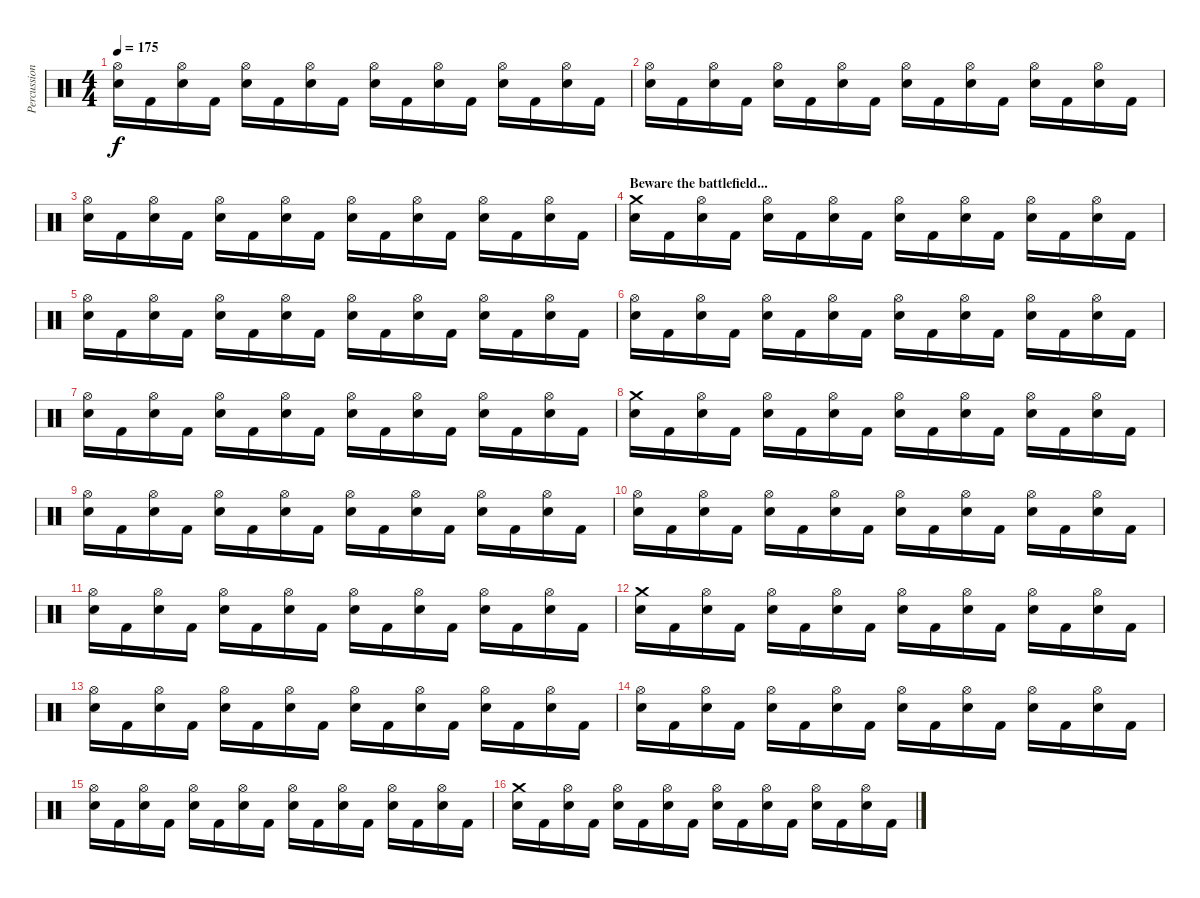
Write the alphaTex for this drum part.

\track ("Percussion" "Percussion") {instrument percussion}
\staff {score}
\articulation defaults
\ts (4 4)
\tempo 175
\clef neutral
\ks c
("Hi-Hat (open)" "Snare (hit) 2").16{dy f} "Kick (hit) 2".16 ("Hi-Hat (open)" "Snare (hit) 2").16 "Kick (hit) 2".16 ("Hi-Hat (open)" "Snare (hit) 2").16 "Kick (hit) 2".16 ("Hi-Hat (open)" "Snare (hit) 2").16 "Kick (hit) 2".16 ("Hi-Hat (open)" "Snare (hit) 2").16 "Kick (hit) 2".16 ("Hi-Hat (open)" "Snare (hit) 2").16 "Kick (hit) 2".16 ("Hi-Hat (open)" "Snare (hit) 2").16 "Kick (hit) 2".16 ("Hi-Hat (open)" "Snare (hit) 2").16 "Kick (hit) 2".16 |
("Hi-Hat (open)" "Snare (hit) 2").16 "Kick (hit) 2".16 ("Hi-Hat (open)" "Snare (hit) 2").16 "Kick (hit) 2".16 ("Hi-Hat (open)" "Snare (hit) 2").16 "Kick (hit) 2".16 ("Hi-Hat (open)" "Snare (hit) 2").16 "Kick (hit) 2".16 ("Hi-Hat (open)" "Snare (hit) 2").16 "Kick (hit) 2".16 ("Hi-Hat (open)" "Snare (hit) 2").16 "Kick (hit) 2".16 ("Hi-Hat (open)" "Snare (hit) 2").16 "Kick (hit) 2".16 ("Hi-Hat (open)" "Snare (hit) 2").16 "Kick (hit) 2".16 |
("Hi-Hat (open)" "Snare (hit) 2").16 "Kick (hit) 2".16 ("Hi-Hat (open)" "Snare (hit) 2").16 "Kick (hit) 2".16 ("Hi-Hat (open)" "Snare (hit) 2").16 "Kick (hit) 2".16 ("Hi-Hat (open)" "Snare (hit) 2").16 "Kick (hit) 2".16 ("Hi-Hat (open)" "Snare (hit) 2").16 "Kick (hit) 2".16 ("Hi-Hat (open)" "Snare (hit) 2").16 "Kick (hit) 2".16 ("Hi-Hat (open)" "Snare (hit) 2").16 "Kick (hit) 2".16 ("Hi-Hat (open)" "Snare (hit) 2").16 "Kick (hit) 2".16 |
\section ("" "Beware the battlefield...")
("Crash medium (hit)" "Snare (hit) 2").16 "Kick (hit) 2".16 ("Hi-Hat (open)" "Snare (hit) 2").16 "Kick (hit) 2".16 ("Hi-Hat (open)" "Snare (hit) 2").16 "Kick (hit) 2".16 ("Hi-Hat (open)" "Snare (hit) 2").16 "Kick (hit) 2".16 ("Hi-Hat (open)" "Snare (hit) 2").16 "Kick (hit) 2".16 ("Hi-Hat (open)" "Snare (hit) 2").16 "Kick (hit) 2".16 ("Hi-Hat (open)" "Snare (hit) 2").16 "Kick (hit) 2".16 ("Hi-Hat (open)" "Snare (hit) 2").16 "Kick (hit) 2".16 |
("Hi-Hat (open)" "Snare (hit) 2").16 "Kick (hit) 2".16 ("Hi-Hat (open)" "Snare (hit) 2").16 "Kick (hit) 2".16 ("Hi-Hat (open)" "Snare (hit) 2").16 "Kick (hit) 2".16 ("Hi-Hat (open)" "Snare (hit) 2").16 "Kick (hit) 2".16 ("Hi-Hat (open)" "Snare (hit) 2").16 "Kick (hit) 2".16 ("Hi-Hat (open)" "Snare (hit) 2").16 "Kick (hit) 2".16 ("Hi-Hat (open)" "Snare (hit) 2").16 "Kick (hit) 2".16 ("Hi-Hat (open)" "Snare (hit) 2").16 "Kick (hit) 2".16 |
("Hi-Hat (open)" "Snare (hit) 2").16 "Kick (hit) 2".16 ("Hi-Hat (open)" "Snare (hit) 2").16 "Kick (hit) 2".16 ("Hi-Hat (open)" "Snare (hit) 2").16 "Kick (hit) 2".16 ("Hi-Hat (open)" "Snare (hit) 2").16 "Kick (hit) 2".16 ("Hi-Hat (open)" "Snare (hit) 2").16 "Kick (hit) 2".16 ("Hi-Hat (open)" "Snare (hit) 2").16 "Kick (hit) 2".16 ("Hi-Hat (open)" "Snare (hit) 2").16 "Kick (hit) 2".16 ("Hi-Hat (open)" "Snare (hit) 2").16 "Kick (hit) 2".16 |
("Hi-Hat (open)" "Snare (hit) 2").16 "Kick (hit) 2".16 ("Hi-Hat (open)" "Snare (hit) 2").16 "Kick (hit) 2".16 ("Hi-Hat (open)" "Snare (hit) 2").16 "Kick (hit) 2".16 ("Hi-Hat (open)" "Snare (hit) 2").16 "Kick (hit) 2".16 ("Hi-Hat (open)" "Snare (hit) 2").16 "Kick (hit) 2".16 ("Hi-Hat (open)" "Snare (hit) 2").16 "Kick (hit) 2".16 ("Hi-Hat (open)" "Snare (hit) 2").16 "Kick (hit) 2".16 ("Hi-Hat (open)" "Snare (hit) 2").16 "Kick (hit) 2".16 |
("Crash medium (hit)" "Snare (hit) 2").16 "Kick (hit) 2".16 ("Hi-Hat (open)" "Snare (hit) 2").16 "Kick (hit) 2".16 ("Hi-Hat (open)" "Snare (hit) 2").16 "Kick (hit) 2".16 ("Hi-Hat (open)" "Snare (hit) 2").16 "Kick (hit) 2".16 ("Hi-Hat (open)" "Snare (hit) 2").16 "Kick (hit) 2".16 ("Hi-Hat (open)" "Snare (hit) 2").16 "Kick (hit) 2".16 ("Hi-Hat (open)" "Snare (hit) 2").16 "Kick (hit) 2".16 ("Hi-Hat (open)" "Snare (hit) 2").16 "Kick (hit) 2".16 |
("Hi-Hat (open)" "Snare (hit) 2").16 "Kick (hit) 2".16 ("Hi-Hat (open)" "Snare (hit) 2").16 "Kick (hit) 2".16 ("Hi-Hat (open)" "Snare (hit) 2").16 "Kick (hit) 2".16 ("Hi-Hat (open)" "Snare (hit) 2").16 "Kick (hit) 2".16 ("Hi-Hat (open)" "Snare (hit) 2").16 "Kick (hit) 2".16 ("Hi-Hat (open)" "Snare (hit) 2").16 "Kick (hit) 2".16 ("Hi-Hat (open)" "Snare (hit) 2").16 "Kick (hit) 2".16 ("Hi-Hat (open)" "Snare (hit) 2").16 "Kick (hit) 2".16 |
("Hi-Hat (open)" "Snare (hit) 2").16 "Kick (hit) 2".16 ("Hi-Hat (open)" "Snare (hit) 2").16 "Kick (hit) 2".16 ("Hi-Hat (open)" "Snare (hit) 2").16 "Kick (hit) 2".16 ("Hi-Hat (open)" "Snare (hit) 2").16 "Kick (hit) 2".16 ("Hi-Hat (open)" "Snare (hit) 2").16 "Kick (hit) 2".16 ("Hi-Hat (open)" "Snare (hit) 2").16 "Kick (hit) 2".16 ("Hi-Hat (open)" "Snare (hit) 2").16 "Kick (hit) 2".16 ("Hi-Hat (open)" "Snare (hit) 2").16 "Kick (hit) 2".16 |
("Hi-Hat (open)" "Snare (hit) 2").16 "Kick (hit) 2".16 ("Hi-Hat (open)" "Snare (hit) 2").16 "Kick (hit) 2".16 ("Hi-Hat (open)" "Snare (hit) 2").16 "Kick (hit) 2".16 ("Hi-Hat (open)" "Snare (hit) 2").16 "Kick (hit) 2".16 ("Hi-Hat (open)" "Snare (hit) 2").16 "Kick (hit) 2".16 ("Hi-Hat (open)" "Snare (hit) 2").16 "Kick (hit) 2".16 ("Hi-Hat (open)" "Snare (hit) 2").16 "Kick (hit) 2".16 ("Hi-Hat (open)" "Snare (hit) 2").16 "Kick (hit) 2".16 |
("Crash medium (hit)" "Snare (hit) 2").16 "Kick (hit) 2".16 ("Hi-Hat (open)" "Snare (hit) 2").16 "Kick (hit) 2".16 ("Hi-Hat (open)" "Snare (hit) 2").16 "Kick (hit) 2".16 ("Hi-Hat (open)" "Snare (hit) 2").16 "Kick (hit) 2".16 ("Hi-Hat (open)" "Snare (hit) 2").16 "Kick (hit) 2".16 ("Hi-Hat (open)" "Snare (hit) 2").16 "Kick (hit) 2".16 ("Hi-Hat (open)" "Snare (hit) 2").16 "Kick (hit) 2".16 ("Hi-Hat (open)" "Snare (hit) 2").16 "Kick (hit) 2".16 |
("Hi-Hat (open)" "Snare (hit) 2").16 "Kick (hit) 2".16 ("Hi-Hat (open)" "Snare (hit) 2").16 "Kick (hit) 2".16 ("Hi-Hat (open)" "Snare (hit) 2").16 "Kick (hit) 2".16 ("Hi-Hat (open)" "Snare (hit) 2").16 "Kick (hit) 2".16 ("Hi-Hat (open)" "Snare (hit) 2").16 "Kick (hit) 2".16 ("Hi-Hat (open)" "Snare (hit) 2").16 "Kick (hit) 2".16 ("Hi-Hat (open)" "Snare (hit) 2").16 "Kick (hit) 2".16 ("Hi-Hat (open)" "Snare (hit) 2").16 "Kick (hit) 2".16 |
("Hi-Hat (open)" "Snare (hit) 2").16 "Kick (hit) 2".16 ("Hi-Hat (open)" "Snare (hit) 2").16 "Kick (hit) 2".16 ("Hi-Hat (open)" "Snare (hit) 2").16 "Kick (hit) 2".16 ("Hi-Hat (open)" "Snare (hit) 2").16 "Kick (hit) 2".16 ("Hi-Hat (open)" "Snare (hit) 2").16 "Kick (hit) 2".16 ("Hi-Hat (open)" "Snare (hit) 2").16 "Kick (hit) 2".16 ("Hi-Hat (open)" "Snare (hit) 2").16 "Kick (hit) 2".16 ("Hi-Hat (open)" "Snare (hit) 2").16 "Kick (hit) 2".16 |
("Hi-Hat (open)" "Snare (hit) 2").16 "Kick (hit) 2".16 ("Hi-Hat (open)" "Snare (hit) 2").16 "Kick (hit) 2".16 ("Hi-Hat (open)" "Snare (hit) 2").16 "Kick (hit) 2".16 ("Hi-Hat (open)" "Snare (hit) 2").16 "Kick (hit) 2".16 ("Hi-Hat (open)" "Snare (hit) 2").16 "Kick (hit) 2".16 ("Hi-Hat (open)" "Snare (hit) 2").16 "Kick (hit) 2".16 ("Hi-Hat (open)" "Snare (hit) 2").16 "Kick (hit) 2".16 ("Hi-Hat (open)" "Snare (hit) 2").16 "Kick (hit) 2".16 |
("Crash medium (hit)" "Snare (hit) 2").16 "Kick (hit) 2".16 ("Hi-Hat (open)" "Snare (hit) 2").16 "Kick (hit) 2".16 ("Hi-Hat (open)" "Snare (hit) 2").16 "Kick (hit) 2".16 ("Hi-Hat (open)" "Snare (hit) 2").16 "Kick (hit) 2".16 ("Hi-Hat (open)" "Snare (hit) 2").16 "Kick (hit) 2".16 ("Hi-Hat (open)" "Snare (hit) 2").16 "Kick (hit) 2".16 ("Hi-Hat (open)" "Snare (hit) 2").16 "Kick (hit) 2".16 ("Hi-Hat (open)" "Snare (hit) 2").16 "Kick (hit) 2".16
